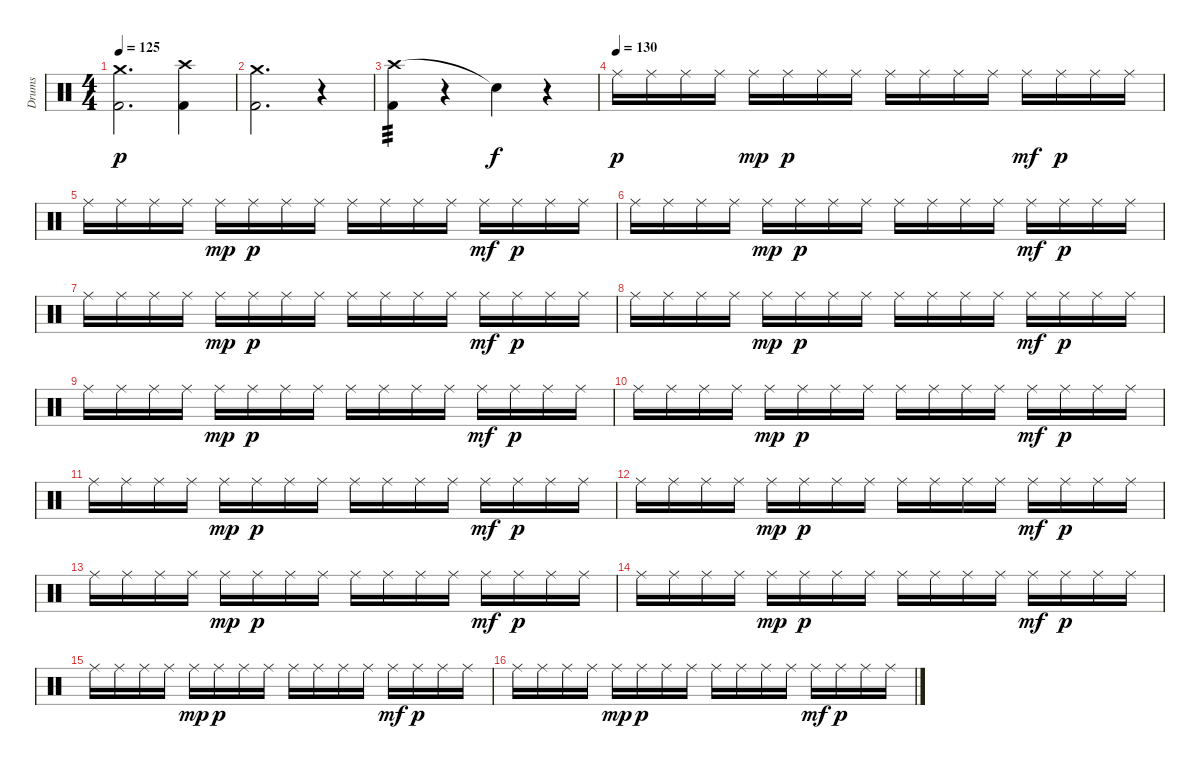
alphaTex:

\track ("Drums" "Drums") {instrument percussion}
\staff {score}
\articulation defaults
\ts (4 4)
\tempo 125
\clef neutral
\ks c
("Crash medium (hit)" "Kick (hit) 2").2{d dy p} ("Crash high (hit)" "Kick (hit) 2").4 |
("Crash medium (hit)" "Kick (hit) 2").2{d} r.4 |
("Crash high (hit)" "Kick (hit) 2").4{tp 3} r.4 "Snare (hit)"{t}.4{dy f} r.4 |
\tempo (130)
"Ride (middle)".16{dy p} "Ride (middle)".16 "Ride (middle)".16 "Ride (middle)".16 "Ride (middle)".16{dy mp} "Ride (middle)".16{dy p} "Ride (middle)".16 "Ride (middle)".16 "Ride (middle)".16 "Ride (middle)".16 "Ride (middle)".16 "Ride (middle)".16 "Ride (middle)".16{dy mf} "Ride (middle)".16{dy p} "Ride (middle)".16 "Ride (middle)".16 |
"Ride (middle)".16 "Ride (middle)".16 "Ride (middle)".16 "Ride (middle)".16 "Ride (middle)".16{dy mp} "Ride (middle)".16{dy p} "Ride (middle)".16 "Ride (middle)".16 "Ride (middle)".16 "Ride (middle)".16 "Ride (middle)".16 "Ride (middle)".16 "Ride (middle)".16{dy mf} "Ride (middle)".16{dy p} "Ride (middle)".16 "Ride (middle)".16 |
"Ride (middle)".16 "Ride (middle)".16 "Ride (middle)".16 "Ride (middle)".16 "Ride (middle)".16{dy mp} "Ride (middle)".16{dy p} "Ride (middle)".16 "Ride (middle)".16 "Ride (middle)".16 "Ride (middle)".16 "Ride (middle)".16 "Ride (middle)".16 "Ride (middle)".16{dy mf} "Ride (middle)".16{dy p} "Ride (middle)".16 "Ride (middle)".16 |
"Ride (middle)".16 "Ride (middle)".16 "Ride (middle)".16 "Ride (middle)".16 "Ride (middle)".16{dy mp} "Ride (middle)".16{dy p} "Ride (middle)".16 "Ride (middle)".16 "Ride (middle)".16 "Ride (middle)".16 "Ride (middle)".16 "Ride (middle)".16 "Ride (middle)".16{dy mf} "Ride (middle)".16{dy p} "Ride (middle)".16 "Ride (middle)".16 |
"Ride (middle)".16 "Ride (middle)".16 "Ride (middle)".16 "Ride (middle)".16 "Ride (middle)".16{dy mp} "Ride (middle)".16{dy p} "Ride (middle)".16 "Ride (middle)".16 "Ride (middle)".16 "Ride (middle)".16 "Ride (middle)".16 "Ride (middle)".16 "Ride (middle)".16{dy mf} "Ride (middle)".16{dy p} "Ride (middle)".16 "Ride (middle)".16 |
"Ride (middle)".16 "Ride (middle)".16 "Ride (middle)".16 "Ride (middle)".16 "Ride (middle)".16{dy mp} "Ride (middle)".16{dy p} "Ride (middle)".16 "Ride (middle)".16 "Ride (middle)".16 "Ride (middle)".16 "Ride (middle)".16 "Ride (middle)".16 "Ride (middle)".16{dy mf} "Ride (middle)".16{dy p} "Ride (middle)".16 "Ride (middle)".16 |
"Ride (middle)".16 "Ride (middle)".16 "Ride (middle)".16 "Ride (middle)".16 "Ride (middle)".16{dy mp} "Ride (middle)".16{dy p} "Ride (middle)".16 "Ride (middle)".16 "Ride (middle)".16 "Ride (middle)".16 "Ride (middle)".16 "Ride (middle)".16 "Ride (middle)".16{dy mf} "Ride (middle)".16{dy p} "Ride (middle)".16 "Ride (middle)".16 |
"Ride (middle)".16 "Ride (middle)".16 "Ride (middle)".16 "Ride (middle)".16 "Ride (middle)".16{dy mp} "Ride (middle)".16{dy p} "Ride (middle)".16 "Ride (middle)".16 "Ride (middle)".16 "Ride (middle)".16 "Ride (middle)".16 "Ride (middle)".16 "Ride (middle)".16{dy mf} "Ride (middle)".16{dy p} "Ride (middle)".16 "Ride (middle)".16 |
"Ride (middle)".16 "Ride (middle)".16 "Ride (middle)".16 "Ride (middle)".16 "Ride (middle)".16{dy mp} "Ride (middle)".16{dy p} "Ride (middle)".16 "Ride (middle)".16 "Ride (middle)".16 "Ride (middle)".16 "Ride (middle)".16 "Ride (middle)".16 "Ride (middle)".16{dy mf} "Ride (middle)".16{dy p} "Ride (middle)".16 "Ride (middle)".16 |
"Ride (middle)".16 "Ride (middle)".16 "Ride (middle)".16 "Ride (middle)".16 "Ride (middle)".16{dy mp} "Ride (middle)".16{dy p} "Ride (middle)".16 "Ride (middle)".16 "Ride (middle)".16 "Ride (middle)".16 "Ride (middle)".16 "Ride (middle)".16 "Ride (middle)".16{dy mf} "Ride (middle)".16{dy p} "Ride (middle)".16 "Ride (middle)".16 |
"Ride (middle)".16 "Ride (middle)".16 "Ride (middle)".16 "Ride (middle)".16 "Ride (middle)".16{dy mp} "Ride (middle)".16{dy p} "Ride (middle)".16 "Ride (middle)".16 "Ride (middle)".16 "Ride (middle)".16 "Ride (middle)".16 "Ride (middle)".16 "Ride (middle)".16{dy mf} "Ride (middle)".16{dy p} "Ride (middle)".16 "Ride (middle)".16 |
"Ride (middle)".16 "Ride (middle)".16 "Ride (middle)".16 "Ride (middle)".16 "Ride (middle)".16{dy mp} "Ride (middle)".16{dy p} "Ride (middle)".16 "Ride (middle)".16 "Ride (middle)".16 "Ride (middle)".16 "Ride (middle)".16 "Ride (middle)".16 "Ride (middle)".16{dy mf} "Ride (middle)".16{dy p} "Ride (middle)".16 "Ride (middle)".16 |
"Ride (middle)".16 "Ride (middle)".16 "Ride (middle)".16 "Ride (middle)".16 "Ride (middle)".16{dy mp} "Ride (middle)".16{dy p} "Ride (middle)".16 "Ride (middle)".16 "Ride (middle)".16 "Ride (middle)".16 "Ride (middle)".16 "Ride (middle)".16 "Ride (middle)".16{dy mf} "Ride (middle)".16{dy p} "Ride (middle)".16 "Ride (middle)".16
